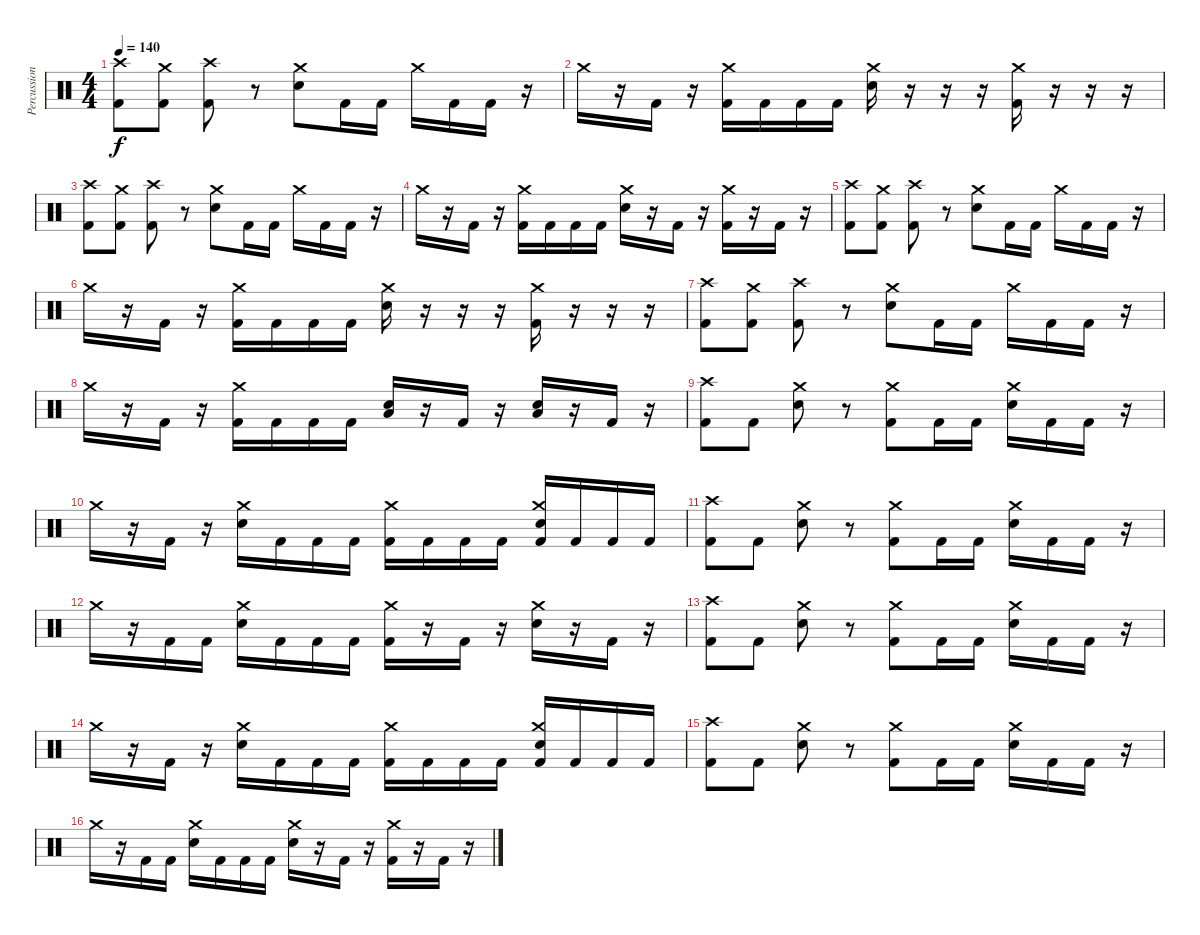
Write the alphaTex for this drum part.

\track ("Percussions" "Percussion") {instrument percussion}
\staff {score}
\articulation defaults
\ts (4 4)
\tempo 140
\clef neutral
\ks c
("Kick (hit) 2" "Crash high (hit)").8{dy f} ("Kick (hit) 2" "Crash medium (hit)").8 ("Kick (hit) 2" "Crash high (hit)").8 r.8 ("Electric Snare (hit)" "Crash medium (hit)").8 "Kick (hit) 2".16 "Kick (hit) 2".16 "Crash medium (hit)".16 "Kick (hit) 2".16 "Kick (hit) 2".16 r.16 |
"Crash medium (hit)".16 r.16 "Kick (hit) 2".16 r.16 ("Kick (hit) 2" "Crash medium (hit)").16 "Kick (hit) 2".16 "Kick (hit) 2".16 "Kick (hit) 2".16 ("Electric Snare (hit)" "Crash medium (hit)").16 r.16 r.16 r.16 ("Kick (hit) 2" "Crash medium (hit)").16 r.16 r.16 r.16 |
("Kick (hit) 2" "Crash high (hit)").8 ("Kick (hit) 2" "Crash medium (hit)").8 ("Kick (hit) 2" "Crash high (hit)").8 r.8 ("Electric Snare (hit)" "Crash medium (hit)").8 "Kick (hit) 2".16 "Kick (hit) 2".16 "Crash medium (hit)".16 "Kick (hit) 2".16 "Kick (hit) 2".16 r.16 |
"Crash medium (hit)".16 r.16 "Kick (hit) 2".16 r.16 ("Kick (hit) 2" "Crash medium (hit)").16 "Kick (hit) 2".16 "Kick (hit) 2".16 "Kick (hit) 2".16 ("Electric Snare (hit)" "Crash medium (hit)").16 r.16 "Kick (hit) 2".16 r.16 ("Kick (hit) 2" "Crash medium (hit)").16 r.16 "Kick (hit) 2".16 r.16 |
("Kick (hit) 2" "Crash high (hit)").8 ("Kick (hit) 2" "Crash medium (hit)").8 ("Kick (hit) 2" "Crash high (hit)").8 r.8 ("Electric Snare (hit)" "Crash medium (hit)").8 "Kick (hit) 2".16 "Kick (hit) 2".16 "Crash medium (hit)".16 "Kick (hit) 2".16 "Kick (hit) 2".16 r.16 |
"Crash medium (hit)".16 r.16 "Kick (hit) 2".16 r.16 ("Kick (hit) 2" "Crash medium (hit)").16 "Kick (hit) 2".16 "Kick (hit) 2".16 "Kick (hit) 2".16 ("Electric Snare (hit)" "Crash medium (hit)").16 r.16 r.16 r.16 ("Kick (hit) 2" "Crash medium (hit)").16 r.16 r.16 r.16 |
("Kick (hit) 2" "Crash high (hit)").8 ("Kick (hit) 2" "Crash medium (hit)").8 ("Kick (hit) 2" "Crash high (hit)").8 r.8 ("Electric Snare (hit)" "Crash medium (hit)").8 "Kick (hit) 2".16 "Kick (hit) 2".16 "Crash medium (hit)".16 "Kick (hit) 2".16 "Kick (hit) 2".16 r.16 |
"Crash medium (hit)".16 r.16 "Kick (hit) 2".16 r.16 ("Kick (hit) 2" "Crash medium (hit)").16 "Kick (hit) 2".16 "Kick (hit) 2".16 "Kick (hit) 2".16 ("Electric Snare (hit)" "Low Tom (hit)").16 r.16 "Kick (hit) 2".16 r.16 ("Electric Snare (hit)" "Low Tom (hit)").16 r.16 "Kick (hit) 2".16 r.16 |
("Kick (hit) 2" "Crash high (hit)").8 "Kick (hit) 2".8 ("Electric Snare (hit)" "Crash medium (hit)").8 r.8 ("Kick (hit) 2" "Crash medium (hit)").8 "Kick (hit) 2".16 "Kick (hit) 2".16 ("Electric Snare (hit)" "Crash medium (hit)").16 "Kick (hit) 2".16 "Kick (hit) 2".16 r.16 |
"Crash medium (hit)".16 r.16 "Kick (hit) 2".16 r.16 ("Electric Snare (hit)" "Crash medium (hit)").16 "Kick (hit) 2".16 "Kick (hit) 2".16 "Kick (hit) 2".16 ("Kick (hit) 2" "Crash medium (hit)").16 "Kick (hit) 2".16 "Kick (hit) 2".16 "Kick (hit) 2".16 ("Kick (hit) 2" "Electric Snare (hit)" "Crash medium (hit)").16 "Kick (hit) 2".16 "Kick (hit) 2".16 "Kick (hit) 2".16 |
("Kick (hit) 2" "Crash high (hit)").8 "Kick (hit) 2".8 ("Electric Snare (hit)" "Crash medium (hit)").8 r.8 ("Kick (hit) 2" "Crash medium (hit)").8 "Kick (hit) 2".16 "Kick (hit) 2".16 ("Electric Snare (hit)" "Crash medium (hit)").16 "Kick (hit) 2".16 "Kick (hit) 2".16 r.16 |
"Crash medium (hit)".16 r.16 "Kick (hit) 2".16 "Kick (hit) 2".16 ("Electric Snare (hit)" "Crash medium (hit)").16 "Kick (hit) 2".16 "Kick (hit) 2".16 "Kick (hit) 2".16 ("Kick (hit) 2" "Crash medium (hit)").16 r.16 "Kick (hit) 2".16 r.16 ("Electric Snare (hit)" "Crash medium (hit)").16 r.16 "Kick (hit) 2".16 r.16 |
("Kick (hit) 2" "Crash high (hit)").8 "Kick (hit) 2".8 ("Electric Snare (hit)" "Crash medium (hit)").8 r.8 ("Kick (hit) 2" "Crash medium (hit)").8 "Kick (hit) 2".16 "Kick (hit) 2".16 ("Electric Snare (hit)" "Crash medium (hit)").16 "Kick (hit) 2".16 "Kick (hit) 2".16 r.16 |
"Crash medium (hit)".16 r.16 "Kick (hit) 2".16 r.16 ("Electric Snare (hit)" "Crash medium (hit)").16 "Kick (hit) 2".16 "Kick (hit) 2".16 "Kick (hit) 2".16 ("Kick (hit) 2" "Crash medium (hit)").16 "Kick (hit) 2".16 "Kick (hit) 2".16 "Kick (hit) 2".16 ("Kick (hit) 2" "Electric Snare (hit)" "Crash medium (hit)").16 "Kick (hit) 2".16 "Kick (hit) 2".16 "Kick (hit) 2".16 |
("Kick (hit) 2" "Crash high (hit)").8 "Kick (hit) 2".8 ("Electric Snare (hit)" "Crash medium (hit)").8 r.8 ("Kick (hit) 2" "Crash medium (hit)").8 "Kick (hit) 2".16 "Kick (hit) 2".16 ("Electric Snare (hit)" "Crash medium (hit)").16 "Kick (hit) 2".16 "Kick (hit) 2".16 r.16 |
"Crash medium (hit)".16 r.16 "Kick (hit) 2".16 "Kick (hit) 2".16 ("Electric Snare (hit)" "Crash medium (hit)").16 "Kick (hit) 2".16 "Kick (hit) 2".16 "Kick (hit) 2".16 ("Electric Snare (hit)" "Crash medium (hit)").16 r.16 "Kick (hit) 2".16 r.16 ("Kick (hit) 2" "Crash medium (hit)").16 r.16 "Kick (hit) 2".16 r.16
